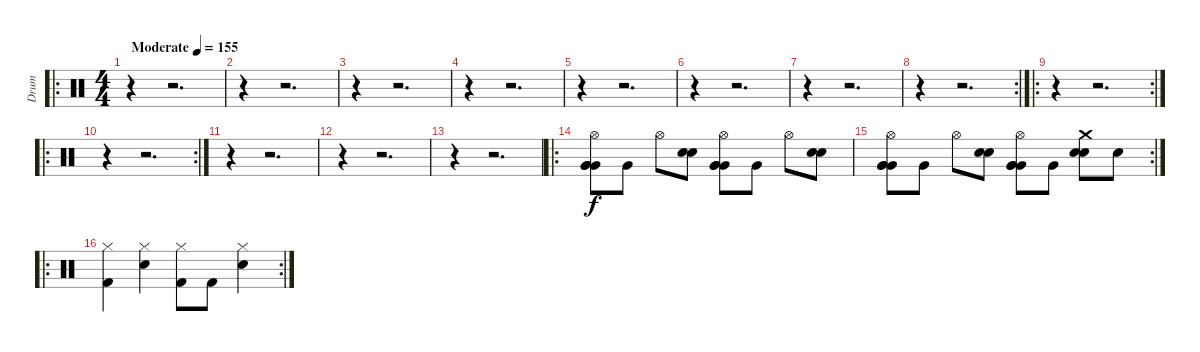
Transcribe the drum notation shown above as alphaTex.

\track ("Drum" "Drum") {instrument percussion}
\staff {score}
\articulation defaults
\ro
\ts (4 4)
\tempo (155 "Moderate")
\clef neutral
\ks c
r.4{dy f} r.2{d} |
r.4 r.2{d} |
r.4 r.2{d} |
r.4 r.2{d} |
r.4 r.2{d} |
r.4 r.2{d} |
r.4 r.2{d} |
\rc 2
r.4 r.2{d} |
\ro
\rc 2
r.4 r.2{d} |
\ro
\rc 2
r.4 r.2{d} |
r.4 r.2{d} |
r.4 r.2{d} |
r.4 r.2{d} |
\ro
("Very Low Tom (hit)" "Very Low Tom (hit)" "Hi-Hat (open)" "Very Low Tom (hit)").8{bd 480} "Very Low Tom (hit)".8 "Hi-Hat (open)".8 ("Snare (hit) 2" "Snare (hit) 2").8{bd 480} ("Very Low Tom (hit)" "Very Low Tom (hit)" "Hi-Hat (open)" "Very Low Tom (hit)").8{bd 480} "Very Low Tom (hit)".8 "Hi-Hat (open)".8 ("Snare (hit) 2" "Snare (hit) 2").8{bd 480} |
\rc 2
("Very Low Tom (hit)" "Very Low Tom (hit)" "Hi-Hat (open)" "Very Low Tom (hit)").8{bd 480} "Very Low Tom (hit)".8 "Hi-Hat (open)".8 ("Snare (hit) 2" "Snare (hit) 2").8{bd 480} ("Very Low Tom (hit)" "Very Low Tom (hit)" "Hi-Hat (open)" "Very Low Tom (hit)").8{bd 480} "Very Low Tom (hit)".8 ("Snare (hit) 2" "Snare (hit) 2" "Crash medium (hit)").8{bd 480} "Snare (hit) 2".8 |
\ro
\rc 2
("Hi-Hat (closed)" "Kick (hit) 2").4 ("Hi-Hat (closed)" "Snare (hit) 2").4 ("Hi-Hat (closed)" "Kick (hit) 2").8 "Kick (hit) 2".8 ("Snare (hit) 2" "Hi-Hat (closed)").4
